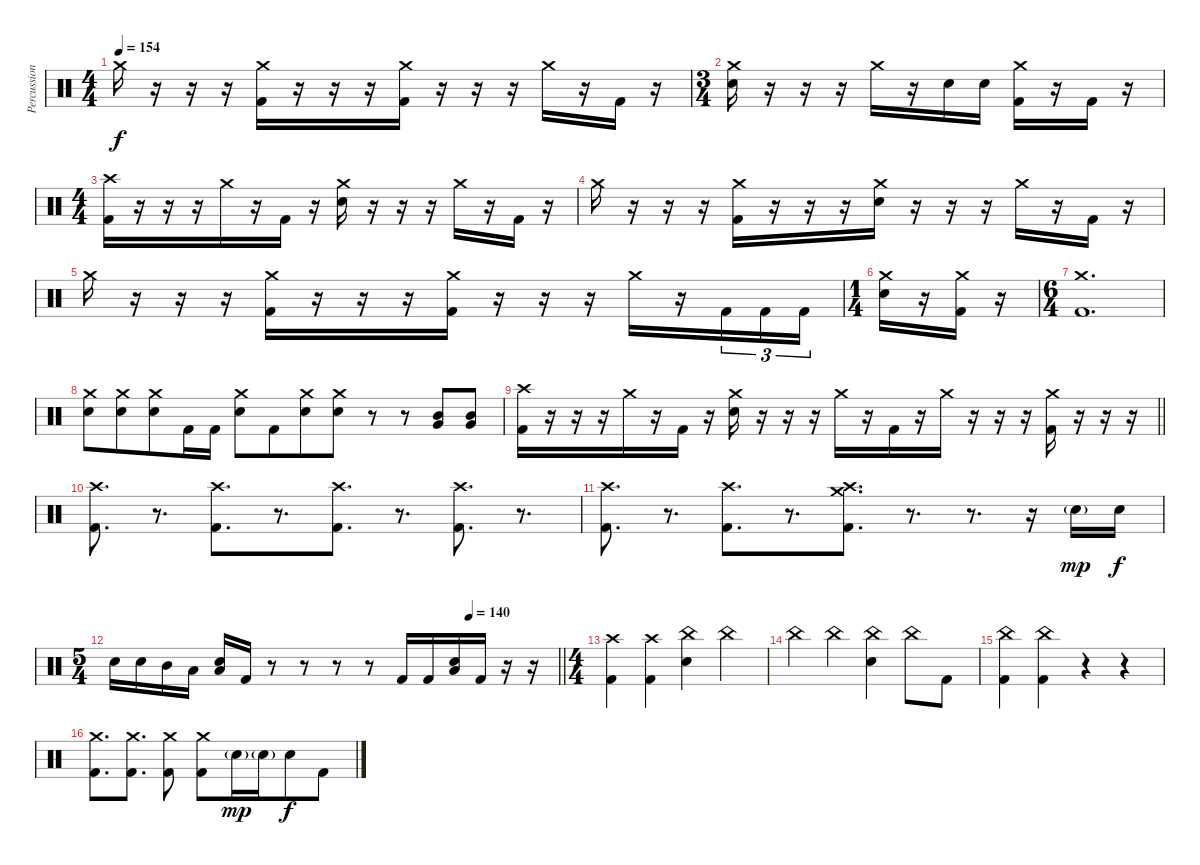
\track ("Percussion" "Percussion") {instrument percussion}
\staff {score}
\articulation defaults
\ts (4 4)
\tempo 154
\clef neutral
\ks c "Crash medium (hit)".16{dy f}
r.16{beam merge} r.16 r.16 ("Crash medium (hit)" "Kick (hit) 2").16{beam merge} r.16 r.16 r.16{beam merge} ("Crash medium (hit)" "Kick (hit) 2").16 r.16 r.16 r.16 "Crash medium (hit)".16{beam merge} r.16 "Kick (hit) 2".16{beam merge} r.16 |
\ts (3 4)
("Crash medium (hit)" "Electric Snare (hit)").16 r.16 r.16 r.16 "Crash medium (hit)".16 r.16{beam merge} "Electric Snare (hit)".16{beam merge} "Electric Snare (hit)".16 ("Crash medium (hit)" "Kick (hit) 2").16{beam merge} r.16 "Kick (hit) 2".16 r.16 |
\ts (4 4)
("Crash high (hit)" "Kick (hit) 2").16{beam merge} r.16{beam merge} r.16 r.16{beam merge} "Crash medium (hit)".16{beam merge} r.16 "Kick (hit) 2".16 r.16 ("Crash medium (hit)" "Electric Snare (hit)").16 r.16{beam merge} r.16 r.16 "Crash medium (hit)".16 r.16 "Kick (hit) 2".16 r.16 |
"Crash medium (hit)".16 r.16{beam merge} r.16{beam merge} r.16 ("Crash medium (hit)" "Kick (hit) 2").16{beam merge} r.16 r.16{beam merge} r.16 ("Crash medium (hit)" "Electric Snare (hit)").16 r.16 r.16 r.16{beam merge} "Crash medium (hit)".16 r.16{beam merge} "Kick (hit) 2".16 r.16 |
"Crash medium (hit)".16 r.16{beam merge} r.16 r.16 ("Crash medium (hit)" "Kick (hit) 2").16{beam merge} r.16 r.16 r.16{beam merge} ("Crash medium (hit)" "Kick (hit) 2").16 r.16 r.16 r.16 "Crash medium (hit)".16{beam merge} r.16 "Kick (hit) 2".16{tu (3 2) beam merge} "Kick (hit) 2".16{tu (3 2) beam merge} "Kick (hit) 2".16{tu (3 2)} |
\ts (1 4)
("Crash medium (hit)" "Electric Snare (hit)").16 r.16 ("Crash medium (hit)" "Kick (hit) 2").16 r.16 |
\ts (6 4)
("Crash medium (hit)" "Kick (hit) 2").1{d} |
("Crash medium (hit)" "Electric Snare (hit)").8 ("Crash medium (hit)" "Electric Snare (hit)").8{beam merge} ("Crash medium (hit)" "Electric Snare (hit)").8 "Kick (hit) 2".16{beam merge} "Kick (hit) 2".16 ("Crash medium (hit)" "Electric Snare (hit)").8 "Kick (hit) 2".8{beam merge} ("Crash medium (hit)" "Electric Snare (hit)").8 ("Crash medium (hit)" "Electric Snare (hit)").8 r.8{beam merge} r.8{beam merge} ("Mid Tom (hit)" "Very Low Tom (hit)").8 ("Mid Tom (hit)" "Very Low Tom (hit)").8 |
\barLineRight lightlight
("Crash high (hit)" "Kick (hit) 2").16{beam merge} r.16 r.16 r.16 "Crash medium (hit)".16 r.16 "Kick (hit) 2".16 r.16 ("Crash medium (hit)" "Electric Snare (hit)").16 r.16 r.16 r.16 "Crash medium (hit)".16 r.16 "Kick (hit) 2".16{beam merge} r.16 "Crash medium (hit)".16 r.16 r.16 r.16{beam merge} ("Crash medium (hit)" "Kick (hit) 2").16 r.16 r.16{beam merge} r.16 |
\section ("" "")
("Crash high (hit)" "Kick (hit) 2").8{d} r.8{d} ("Crash high (hit)" "Kick (hit) 2").8{d beam merge} r.8{d beam merge} ("Crash high (hit)" "Kick (hit) 2").8{d} r.8{d} ("Crash high (hit)" "Kick (hit) 2").8{d} r.8{d} |
("Crash high (hit)" "Kick (hit) 2").8{d} r.8{d} ("Crash high (hit)" "Kick (hit) 2").8{d beam merge} r.8{d beam merge} ("Crash medium (hit)" "Crash high (hit)" "Kick (hit) 2").8{d} r.8{d} r.8{d} r.16 "Electric Snare (hit)"{g}.16{dy mp} "Electric Snare (hit)".16{dy f} |
\ts (5 4)
\tempo (140 0.8)
\barLineRight lightlight "Electric Snare (hit)".16 "Electric Snare (hit)".16 "Mid Tom (hit)".16{beam merge} "Low Tom (hit)".16
("Electric Snare (hit)" "Low Floor Tom (hit)").16 "Kick (hit) 2".16 r.8 r.8 r.8 r.8 "Kick (hit) 2".16{beam merge} "Kick (hit) 2".16{beam merge} ("Electric Snare (hit)" "Low Floor Tom (hit)").16{beam merge} "Kick (hit) 2".16 r.16{beam merge} r.16 |
\ts (4 4)
\section ("" "")
("Crash high (hit)" "Kick (hit) 2").4{beam merge} ("Crash high (hit)" "Kick (hit) 2").4 ("China (hit)" "Electric Snare (hit)").4{beam merge} "China (hit)".4 |
"China (hit)".4 "China (hit)".4 ("China (hit)" "Electric Snare (hit)").4{beam merge} "China (hit)".8 "Kick (hit) 2".8 |
("China (hit)" "Kick (hit) 2").4 ("China (hit)" "Kick (hit) 2").4{beam merge} r.4 r.4 |
("Crash medium (hit)" "Kick (hit) 2").8{d} ("Crash medium (hit)" "Kick (hit) 2").8{d} ("Crash medium (hit)" "Kick (hit) 2").8 ("Crash medium (hit)" "Kick (hit) 2").8 "Electric Snare (hit)"{g}.16{dy mp} "Electric Snare (hit)"{g}.16{beam merge} "Electric Snare (hit)".8{dy f} "Kick (hit) 2".8
